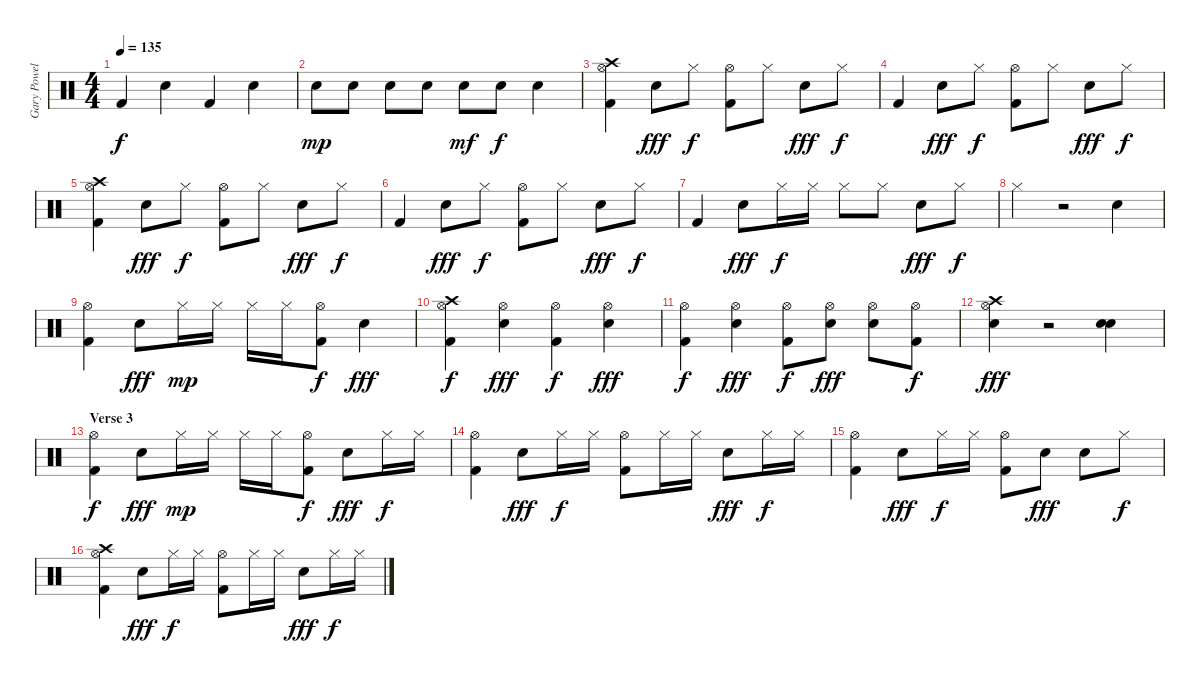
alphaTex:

\track ("Gary Powell" "Gary Powel") {instrument percussion}
\staff {score}
\articulation defaults
\ts (4 4)
\tempo 135
\clef neutral
\ks c "Kick (hit) 2".4{dy f} "Electric Snare (hit)".4 "Kick (hit) 2".4 "Electric Snare (hit)".4
|
"Electric Snare (hit)".8{dy mp} "Electric Snare (hit)".8 "Electric Snare (hit)".8 "Electric Snare (hit)".8 "Electric Snare (hit)".8{dy mf} "Electric Snare (hit)".8{dy f} "Electric Snare (hit)".4 |
("Hi-Hat (open)" "Kick (hit) 2" "Crash high (hit)").4 "Electric Snare (hit)".8{dy fff} "Hi-Hat (closed)".8{dy f} ("Hi-Hat (open)" "Kick (hit) 2").8 "Hi-Hat (closed)".8 "Electric Snare (hit)".8{dy fff} "Hi-Hat (closed)".8{dy f} |
"Kick (hit) 2".4 "Electric Snare (hit)".8{dy fff} "Hi-Hat (closed)".8{dy f} ("Hi-Hat (open)" "Kick (hit) 2").8 "Hi-Hat (closed)".8 "Electric Snare (hit)".8{dy fff} "Hi-Hat (closed)".8{dy f} |
("Hi-Hat (open)" "Kick (hit) 2" "Crash high (hit)").4 "Electric Snare (hit)".8{dy fff} "Hi-Hat (closed)".8{dy f} ("Hi-Hat (open)" "Kick (hit) 2").8 "Hi-Hat (closed)".8 "Electric Snare (hit)".8{dy fff} "Hi-Hat (closed)".8{dy f} |
"Kick (hit) 2".4 "Electric Snare (hit)".8{dy fff} "Hi-Hat (closed)".8{dy f} ("Hi-Hat (open)" "Kick (hit) 2").8 "Hi-Hat (closed)".8 "Electric Snare (hit)".8{dy fff} "Hi-Hat (closed)".8{dy f} |
"Kick (hit) 2".4 "Electric Snare (hit)".8{dy fff} "Hi-Hat (closed)".16{dy f} "Hi-Hat (closed)".16 "Hi-Hat (closed)".8 "Hi-Hat (closed)".8 "Electric Snare (hit)".8{dy fff} "Hi-Hat (closed)".8{dy f} |
"Hi-Hat (closed)".4 r.2 "Electric Snare (hit)".4 |
("Hi-Hat (open)" "Kick (hit) 2").4 "Electric Snare (hit)".8{dy fff} "Hi-Hat (closed)".16{dy mp} "Hi-Hat (closed)".16 "Hi-Hat (closed)".16 "Hi-Hat (closed)".16 ("Hi-Hat (open)" "Kick (hit) 2").8{dy f} "Electric Snare (hit)".4{dy fff} |
("Hi-Hat (open)" "Kick (hit) 2" "Crash high (hit)").4{dy f} ("Hi-Hat (open)" "Electric Snare (hit)").4{dy fff} ("Hi-Hat (open)" "Kick (hit) 2").4{dy f} ("Hi-Hat (open)" "Electric Snare (hit)").4{dy fff} |
("Hi-Hat (open)" "Kick (hit) 2").4{dy f} ("Hi-Hat (open)" "Electric Snare (hit)").4{dy fff} ("Hi-Hat (open)" "Kick (hit) 2").8{dy f} ("Hi-Hat (open)" "Electric Snare (hit)").8{dy fff} ("Hi-Hat (open)" "Electric Snare (hit)").8 ("Hi-Hat (open)" "Kick (hit) 2").8{dy f} |
("Hi-Hat (open)" "Electric Snare (hit)" "Crash high (hit)").4{dy fff} r.2 ("Electric Snare (hit)" "Electric Snare (hit)").4 |
\section ("" "Verse 3")
("Hi-Hat (open)" "Kick (hit) 2").4{dy f} "Electric Snare (hit)".8{dy fff} "Hi-Hat (closed)".16{dy mp} "Hi-Hat (closed)".16 "Hi-Hat (closed)".16 "Hi-Hat (closed)".16 ("Hi-Hat (open)" "Kick (hit) 2").8{dy f} "Electric Snare (hit)".8{dy fff} "Hi-Hat (closed)".16{dy f} "Hi-Hat (closed)".16 |
("Hi-Hat (open)" "Kick (hit) 2").4 "Electric Snare (hit)".8{dy fff} "Hi-Hat (closed)".16{dy f} "Hi-Hat (closed)".16 ("Hi-Hat (open)" "Kick (hit) 2").8 "Hi-Hat (closed)".16 "Hi-Hat (closed)".16 "Electric Snare (hit)".8{dy fff} "Hi-Hat (closed)".16{dy f} "Hi-Hat (closed)".16 |
("Hi-Hat (open)" "Kick (hit) 2").4 "Electric Snare (hit)".8{dy fff} "Hi-Hat (closed)".16{dy f} "Hi-Hat (closed)".16 ("Hi-Hat (open)" "Kick (hit) 2").8 "Electric Snare (hit)".8{dy fff} "Electric Snare (hit)".8 "Hi-Hat (closed)".8{dy f} |
("Hi-Hat (open)" "Kick (hit) 2" "Crash high (hit)").4 "Electric Snare (hit)".8{dy fff} "Hi-Hat (closed)".16{dy f} "Hi-Hat (closed)".16 ("Hi-Hat (open)" "Kick (hit) 2").8 "Hi-Hat (closed)".16 "Hi-Hat (closed)".16 "Electric Snare (hit)".8{dy fff} "Hi-Hat (closed)".16{dy f} "Hi-Hat (closed)".16
